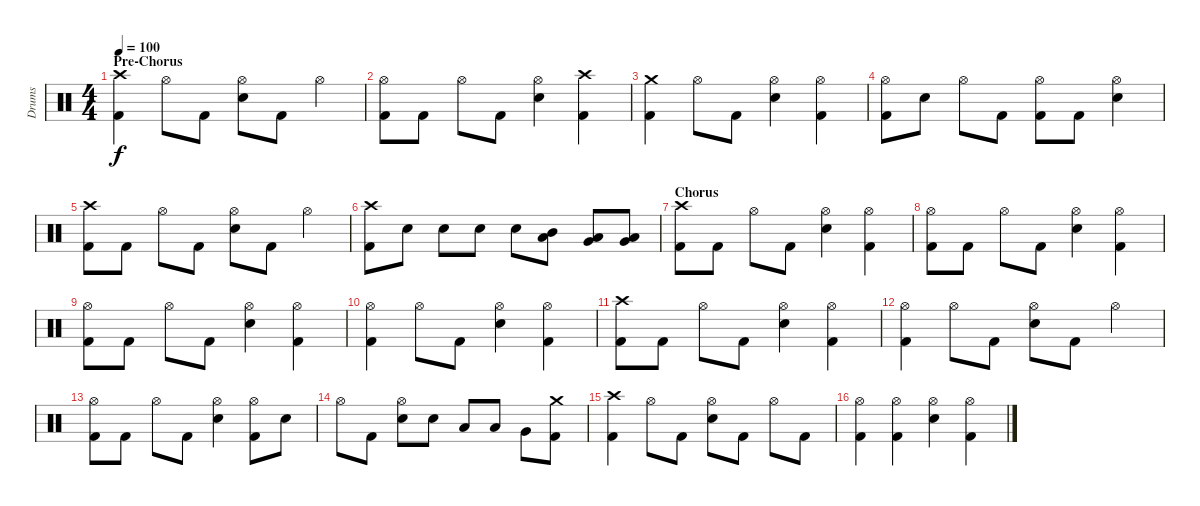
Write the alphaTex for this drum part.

\track ("Drums" "Drums") {instrument percussion}
\staff {score}
\articulation defaults
\ts (4 4)
\section ("" "Pre-Chorus")
\tempo 100
\clef neutral
\ks c
("Crash high (hit)" "Kick (hit) 2").4{dy f} "Hi-Hat (open)".8 "Kick (hit) 2".8 ("Hi-Hat (open)" "Electric Snare (hit)").8 "Kick (hit) 2".8 "Hi-Hat (open)".4 |
("Hi-Hat (open)" "Kick (hit) 2").8 "Kick (hit) 2".8 "Hi-Hat (open)".8 "Kick (hit) 2".8 ("Hi-Hat (open)" "Electric Snare (hit)").4 ("Crash high (hit)" "Kick (hit) 2").4 |
("Crash medium (hit)" "Kick (hit) 2").4 "Hi-Hat (open)".8 "Kick (hit) 2".8 ("Hi-Hat (open)" "Electric Snare (hit)").4 ("Hi-Hat (open)" "Kick (hit) 2").4 |
("Hi-Hat (open)" "Kick (hit) 2").8 "Electric Snare (hit)".8 "Hi-Hat (open)".8 "Kick (hit) 2".8 ("Hi-Hat (open)" "Kick (hit) 2").8 "Kick (hit) 2".8 ("Hi-Hat (open)" "Electric Snare (hit)").4 |
("Crash high (hit)" "Kick (hit) 2").8 "Kick (hit) 2".8 "Hi-Hat (open)".8 "Kick (hit) 2".8 ("Hi-Hat (open)" "Electric Snare (hit)").8 "Kick (hit) 2".8 "Hi-Hat (open)".4 |
("Crash high (hit)" "Kick (hit) 2").8 "Electric Snare (hit)".8 "Electric Snare (hit)".8 "Electric Snare (hit)".8 "Electric Snare (hit)".8 ("Mid Tom (hit)" "Low Tom (hit)").8 ("Low Tom (hit)" "Very Low Tom (hit)").8 ("Very Low Tom (hit)" "Low Floor Tom (hit)").8 |
\section ("" "Chorus")
("Crash high (hit)" "Kick (hit) 2").8 "Kick (hit) 2".8 "Hi-Hat (open)".8 "Kick (hit) 2".8 ("Hi-Hat (open)" "Electric Snare (hit)").4 ("Hi-Hat (open)" "Kick (hit) 2").4 |
("Hi-Hat (open)" "Kick (hit) 2").8 "Kick (hit) 2".8 "Hi-Hat (open)".8 "Kick (hit) 2".8 ("Hi-Hat (open)" "Electric Snare (hit)").4 ("Hi-Hat (open)" "Kick (hit) 2").4 |
("Hi-Hat (open)" "Kick (hit) 2").8 "Kick (hit) 2".8 "Hi-Hat (open)".8 "Kick (hit) 2".8 ("Hi-Hat (open)" "Electric Snare (hit)").4 ("Hi-Hat (open)" "Kick (hit) 2").4 |
("Hi-Hat (open)" "Kick (hit) 2").4 "Hi-Hat (open)".8 "Kick (hit) 2".8 ("Hi-Hat (open)" "Electric Snare (hit)").4 ("Hi-Hat (open)" "Kick (hit) 2").4 |
("Crash high (hit)" "Kick (hit) 2").8 "Kick (hit) 2".8 "Hi-Hat (open)".8 "Kick (hit) 2".8 ("Hi-Hat (open)" "Electric Snare (hit)").4 ("Hi-Hat (open)" "Kick (hit) 2").4 |
("Hi-Hat (open)" "Kick (hit) 2").4 "Hi-Hat (open)".8 "Kick (hit) 2".8 ("Hi-Hat (open)" "Electric Snare (hit)").8 "Kick (hit) 2".8 "Hi-Hat (open)".4 |
("Hi-Hat (open)" "Kick (hit) 2").8 "Kick (hit) 2".8 "Hi-Hat (open)".8 "Kick (hit) 2".8 ("Hi-Hat (open)" "Electric Snare (hit)").4 ("Hi-Hat (open)" "Kick (hit) 2").8 "Electric Snare (hit)".8 |
"Hi-Hat (open)".8 "Kick (hit) 2".8 ("Hi-Hat (open)" "Electric Snare (hit)").8 "Electric Snare (hit)".8 "Low Tom (hit)".8 "Low Tom (hit)".8 "Very Low Tom (hit)".8 ("Crash medium (hit)" "Kick (hit) 2").8 |
("Crash high (hit)" "Kick (hit) 2").4 "Hi-Hat (open)".8 "Kick (hit) 2".8 ("Hi-Hat (open)" "Electric Snare (hit)").8 "Kick (hit) 2".8 "Hi-Hat (open)".8 "Kick (hit) 2".8 |
("Hi-Hat (open)" "Kick (hit) 2").4 ("Hi-Hat (open)" "Kick (hit) 2").4 ("Hi-Hat (open)" "Electric Snare (hit)").4 ("Hi-Hat (open)" "Kick (hit) 2").4
